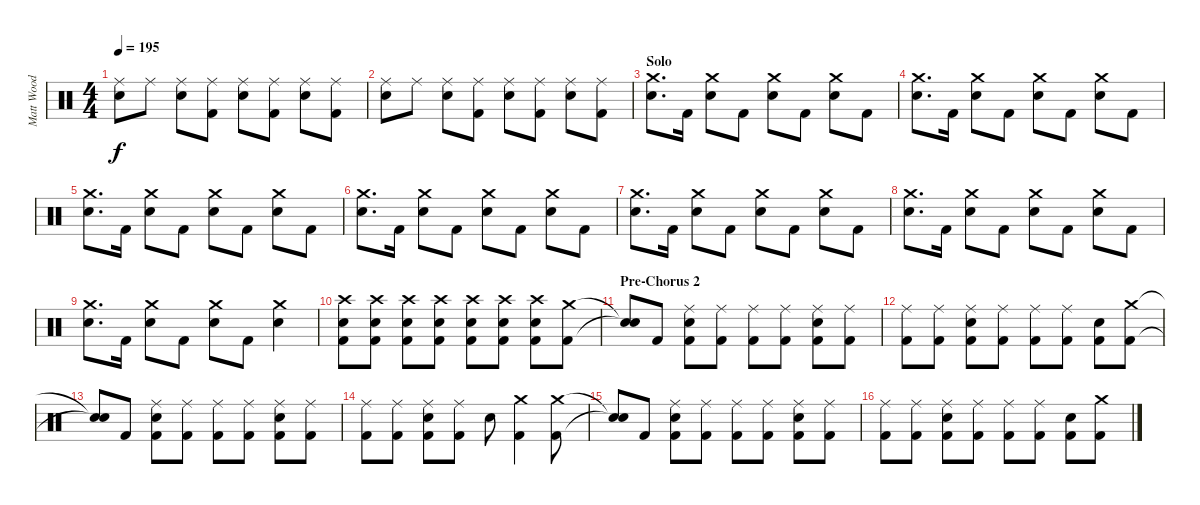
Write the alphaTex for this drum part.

\track ("Matt Wood" "Matt Wood") {instrument percussion}
\staff {score}
\articulation defaults
\ts (4 4)
\tempo 195
\clef neutral
\ks c
("Ride (middle)" "Snare (hit) 2").8{dy f} "Ride (middle)".8 ("Ride (middle)" "Snare (hit) 2").8 ("Ride (middle)" "Kick (hit) 2").8 ("Ride (middle)" "Snare (hit) 2").8 ("Ride (middle)" "Kick (hit) 2").8 ("Ride (middle)" "Snare (hit) 2").8 ("Ride (middle)" "Kick (hit) 2").8 |
("Ride (middle)" "Snare (hit) 2").8 "Ride (middle)".8 ("Ride (middle)" "Snare (hit) 2").8 ("Ride (middle)" "Kick (hit) 2").8 ("Ride (middle)" "Snare (hit) 2").8 ("Ride (middle)" "Kick (hit) 2").8 ("Ride (middle)" "Snare (hit) 2").8 ("Ride (middle)" "Kick (hit) 2").8 |
\section ("" "Solo")
("Crash medium (hit)" "Snare (hit) 2").8{d} "Kick (hit) 2".16 ("Crash medium (hit)" "Snare (hit) 2").8 "Kick (hit) 2".8 ("Crash medium (hit)" "Snare (hit) 2").8 "Kick (hit) 2".8 ("Crash medium (hit)" "Snare (hit) 2").8 "Kick (hit) 2".8 |
("Crash medium (hit)" "Snare (hit) 2").8{d} "Kick (hit) 2".16 ("Crash medium (hit)" "Snare (hit) 2").8 "Kick (hit) 2".8 ("Crash medium (hit)" "Snare (hit) 2").8 "Kick (hit) 2".8 ("Crash medium (hit)" "Snare (hit) 2").8 "Kick (hit) 2".8 |
("Crash medium (hit)" "Snare (hit) 2").8{d} "Kick (hit) 2".16 ("Crash medium (hit)" "Snare (hit) 2").8 "Kick (hit) 2".8 ("Crash medium (hit)" "Snare (hit) 2").8 "Kick (hit) 2".8 ("Crash medium (hit)" "Snare (hit) 2").8 "Kick (hit) 2".8 |
("Crash medium (hit)" "Snare (hit) 2").8{d} "Kick (hit) 2".16 ("Crash medium (hit)" "Snare (hit) 2").8 "Kick (hit) 2".8 ("Crash medium (hit)" "Snare (hit) 2").8 "Kick (hit) 2".8 ("Crash medium (hit)" "Snare (hit) 2").8 "Kick (hit) 2".8 |
("Crash medium (hit)" "Snare (hit) 2").8{d} "Kick (hit) 2".16 ("Crash medium (hit)" "Snare (hit) 2").8 "Kick (hit) 2".8 ("Crash medium (hit)" "Snare (hit) 2").8 "Kick (hit) 2".8 ("Crash medium (hit)" "Snare (hit) 2").8 "Kick (hit) 2".8 |
("Crash medium (hit)" "Snare (hit) 2").8{d} "Kick (hit) 2".16 ("Crash medium (hit)" "Snare (hit) 2").8 "Kick (hit) 2".8 ("Crash medium (hit)" "Snare (hit) 2").8 "Kick (hit) 2".8 ("Crash medium (hit)" "Snare (hit) 2").8 "Kick (hit) 2".8 |
("Crash medium (hit)" "Snare (hit) 2").8{d} "Kick (hit) 2".16 ("Crash medium (hit)" "Snare (hit) 2").8 "Kick (hit) 2".8 ("Crash medium (hit)" "Snare (hit) 2").8 "Kick (hit) 2".8 ("Crash medium (hit)" "Snare (hit) 2").4 |
("Crash high (hit)" "Snare (hit) 2" "Kick (hit) 2").8 ("Crash high (hit)" "Snare (hit) 2" "Kick (hit) 2").8 ("Crash high (hit)" "Snare (hit) 2" "Kick (hit) 2").8 ("Crash high (hit)" "Snare (hit) 2" "Kick (hit) 2").8 ("Crash high (hit)" "Snare (hit) 2" "Kick (hit) 2").8 ("Crash high (hit)" "Snare (hit) 2" "Kick (hit) 2").8 ("Crash high (hit)" "Snare (hit) 2" "Kick (hit) 2").8 ("Crash medium (hit)" "Kick (hit) 2").8 |
\section ("" "Pre-Chorus 2")
("Snare (hit)"{t} "Snare (hit)"{t}).8 "Kick (hit) 2".8 ("Ride (middle)" "Snare (hit) 2" "Kick (hit) 2").8 ("Ride (middle)" "Kick (hit) 2").8 ("Ride (middle)" "Kick (hit) 2").8 ("Ride (middle)" "Kick (hit) 2").8 ("Ride (middle)" "Snare (hit) 2" "Kick (hit) 2").8 ("Ride (middle)" "Kick (hit) 2").8 |
("Ride (middle)" "Kick (hit) 2").8 ("Ride (middle)" "Kick (hit) 2").8 ("Ride (middle)" "Snare (hit) 2" "Kick (hit) 2").8 ("Ride (middle)" "Kick (hit) 2").8 ("Ride (middle)" "Kick (hit) 2").8 ("Ride (middle)" "Kick (hit) 2").8 ("Snare (hit) 2" "Kick (hit) 2").8 ("Crash medium (hit)" "Kick (hit) 2").8 |
("Snare (hit)"{t} "Snare (hit)"{t}).8 "Kick (hit) 2".8 ("Ride (middle)" "Snare (hit) 2" "Kick (hit) 2").8 ("Ride (middle)" "Kick (hit) 2").8 ("Ride (middle)" "Kick (hit) 2").8 ("Ride (middle)" "Kick (hit) 2").8 ("Ride (middle)" "Snare (hit) 2" "Kick (hit) 2").8 ("Ride (middle)" "Kick (hit) 2").8 |
("Ride (middle)" "Kick (hit) 2").8 ("Ride (middle)" "Kick (hit) 2").8 ("Ride (middle)" "Snare (hit) 2" "Kick (hit) 2").8 ("Ride (middle)" "Kick (hit) 2").8 "Snare (hit) 2".8 ("Crash medium (hit)" "Kick (hit) 2").4 ("Crash medium (hit)" "Kick (hit) 2").8 |
("Snare (hit)"{t} "Snare (hit)"{t}).8 "Kick (hit) 2".8 ("Ride (middle)" "Snare (hit) 2" "Kick (hit) 2").8 ("Ride (middle)" "Kick (hit) 2").8 ("Ride (middle)" "Kick (hit) 2").8 ("Ride (middle)" "Kick (hit) 2").8 ("Ride (middle)" "Snare (hit) 2" "Kick (hit) 2").8 ("Ride (middle)" "Kick (hit) 2").8 |
("Ride (middle)" "Kick (hit) 2").8 ("Ride (middle)" "Kick (hit) 2").8 ("Ride (middle)" "Snare (hit) 2" "Kick (hit) 2").8 ("Ride (middle)" "Kick (hit) 2").8 ("Ride (middle)" "Kick (hit) 2").8 ("Ride (middle)" "Kick (hit) 2").8 ("Snare (hit) 2" "Kick (hit) 2").8 ("Crash medium (hit)" "Kick (hit) 2").8
